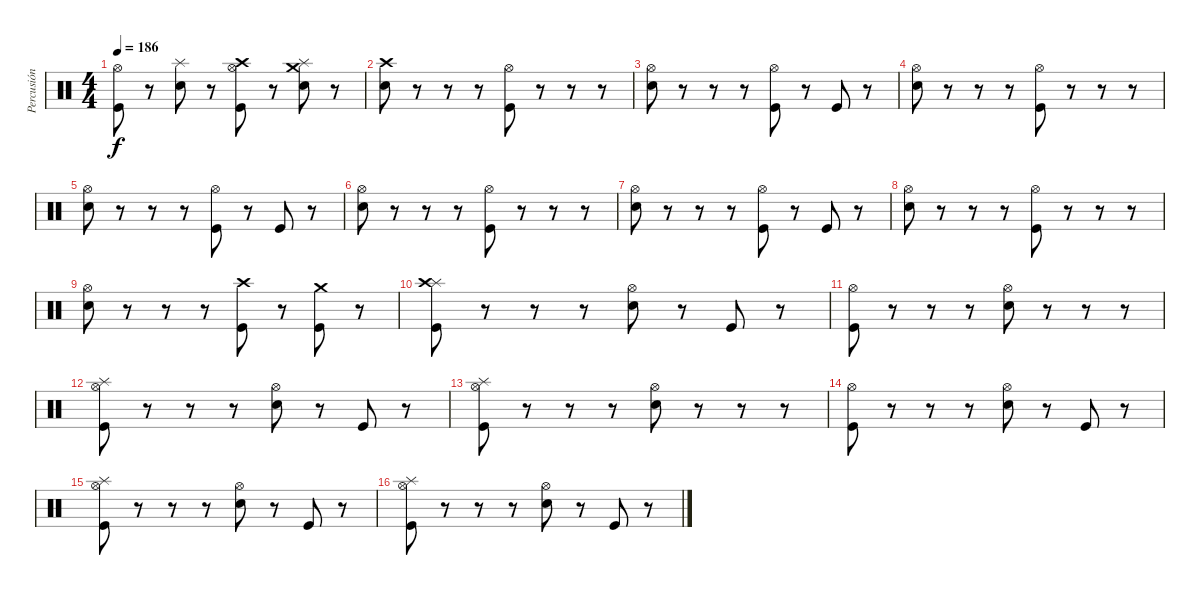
\track ("Percusión" "Percusión") {instrument percussion}
\staff {score}
\articulation defaults
\ts (4 4)
\tempo 186
\clef neutral
\ks c
("Hi-Hat (open)" "Kick (hit)").8{dy f} r.8 ("Splash (hit)" "Snare (hit) 2").8 r.8 ("Hi-Hat (open)" "Crash high (hit)" "Kick (hit)").8 r.8 ("Splash (hit)" "Crash medium (hit)" "Snare (hit) 2").8 r.8 |
("Crash high (hit)" "Snare (hit) 2").8 r.8 r.8 r.8 ("Hi-Hat (open)" "Kick (hit)").8 r.8 r.8 r.8 |
("Hi-Hat (open)" "Snare (hit) 2").8 r.8 r.8 r.8 ("Hi-Hat (open)" "Kick (hit)").8 r.8 "Kick (hit)".8 r.8 |
("Hi-Hat (open)" "Snare (hit) 2").8 r.8 r.8 r.8 ("Hi-Hat (open)" "Kick (hit)").8 r.8 r.8 r.8 |
("Hi-Hat (open)" "Snare (hit) 2").8 r.8 r.8 r.8 ("Hi-Hat (open)" "Kick (hit)").8 r.8 "Kick (hit)".8 r.8 |
("Hi-Hat (open)" "Snare (hit) 2").8 r.8 r.8 r.8 ("Hi-Hat (open)" "Kick (hit)").8 r.8 r.8 r.8 |
("Hi-Hat (open)" "Snare (hit) 2").8 r.8 r.8 r.8 ("Hi-Hat (open)" "Kick (hit)").8 r.8 "Kick (hit)".8 r.8 |
("Hi-Hat (open)" "Snare (hit) 2").8 r.8 r.8 r.8 ("Hi-Hat (open)" "Kick (hit)").8 r.8 r.8 r.8 |
("Hi-Hat (open)" "Snare (hit) 2").8 r.8 r.8 r.8 ("Crash high (hit)" "Kick (hit)").8 r.8 ("Crash medium (hit)" "Kick (hit)").8 r.8 |
("Splash (hit)" "Crash high (hit)" "Kick (hit)").8 r.8 r.8 r.8 ("Hi-Hat (open)" "Snare (hit) 2").8 r.8 "Kick (hit)".8 r.8 |
("Hi-Hat (open)" "Kick (hit)").8 r.8 r.8 r.8 ("Hi-Hat (open)" "Snare (hit) 2").8 r.8 r.8 r.8 |
("Hi-Hat (open)" "Splash (hit)" "Kick (hit)").8 r.8 r.8 r.8 ("Hi-Hat (open)" "Snare (hit) 2").8 r.8 "Kick (hit)".8 r.8 |
("Hi-Hat (open)" "Splash (hit)" "Kick (hit)").8 r.8 r.8 r.8 ("Hi-Hat (open)" "Snare (hit) 2").8 r.8 r.8 r.8 |
("Hi-Hat (open)" "Kick (hit)").8 r.8 r.8 r.8 ("Hi-Hat (open)" "Snare (hit) 2").8 r.8 "Kick (hit)".8 r.8 |
("Hi-Hat (open)" "Splash (hit)" "Kick (hit)").8 r.8 r.8 r.8 ("Hi-Hat (open)" "Snare (hit) 2").8 r.8 "Kick (hit)".8 r.8 |
("Hi-Hat (open)" "Splash (hit)" "Kick (hit)").8 r.8 r.8 r.8 ("Hi-Hat (open)" "Snare (hit) 2").8 r.8 "Kick (hit)".8 r.8
